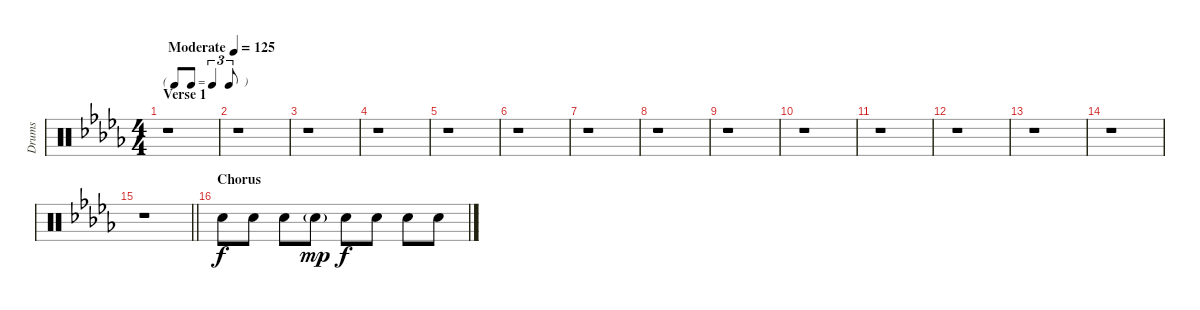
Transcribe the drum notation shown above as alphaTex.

\track ("Drums" "Drums") {instrument percussion}
\staff {score}
\articulation defaults
\ts (4 4)
\tf triplet8th
\section ("" "Verse 1")
\tempo (125 "Moderate")
\clef neutral
\ks db
r.1{dy f} |
r.1 |
r.1 |
r.1 |
r.1 |
r.1 |
r.1 |
r.1 |
r.1 |
r.1 |
r.1 |
r.1 |
r.1 |
r.1 |
\barLineRight lightlight
r.1 |
\section ("" "Chorus")
"Snare (hit) 2".8 "Snare (hit) 2".8 "Snare (hit) 2".8 "Snare (hit) 2"{g}.8{dy mp} "Snare (hit) 2".8{dy f} "Snare (hit) 2".8 "Snare (hit) 2".8 "Snare (hit) 2".8
